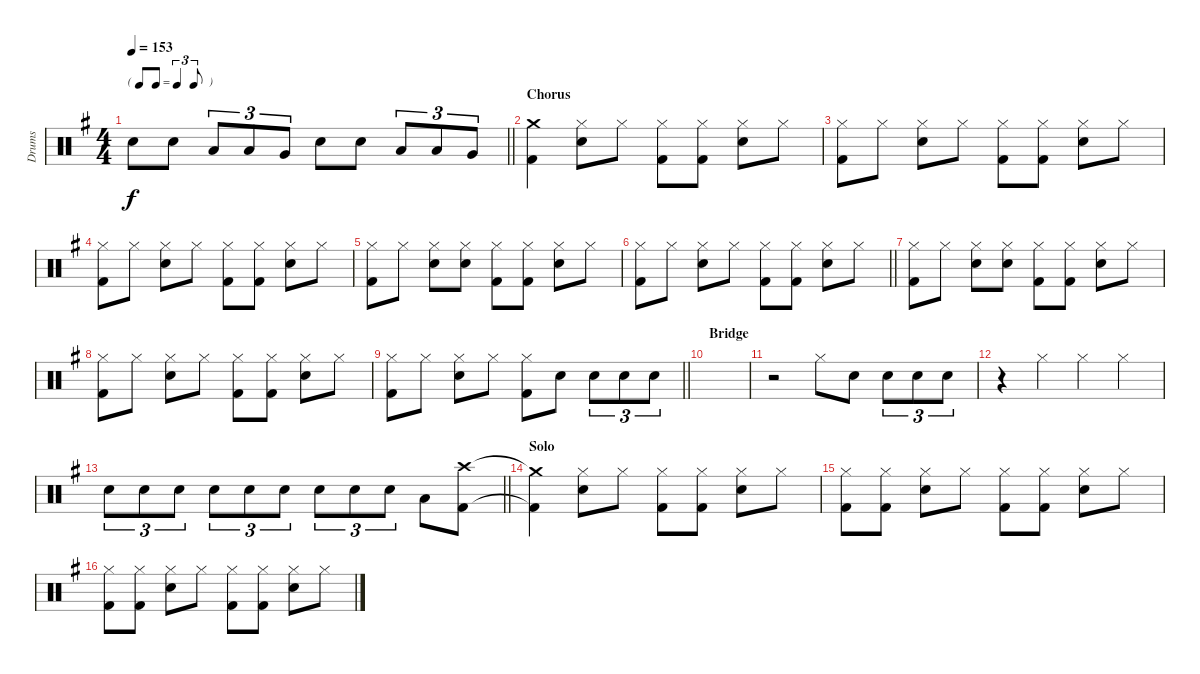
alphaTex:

\track ("Drums" "Drums") {instrument percussion}
\staff {score}
\articulation defaults
\ts (4 4)
\tf triplet8th
\tempo 153
\clef neutral
\barLineRight lightlight
\ks g "Electric Snare (hit)".8{dy f} "Electric Snare (hit)".8 "Low Tom (hit)".8{tu (3 2)} "Low Tom (hit)".8{tu (3 2)} "Very Low Tom (hit)".8{tu (3 2)} "Electric Snare (hit)".8 "Electric Snare (hit)".8 "Low Tom (hit)".8{tu (3 2)} "Low Tom (hit)".8{tu (3 2)} "Very Low Tom (hit)".8{tu (3 2)}
|
\section ("" "Chorus")
("Crash medium (hit)" "Kick (hit) 2").4 ("Hi-Hat (closed)" "Electric Snare (hit)").8 "Hi-Hat (closed)".8 ("Hi-Hat (closed)" "Kick (hit) 2").8 ("Hi-Hat (closed)" "Kick (hit) 2").8 ("Hi-Hat (closed)" "Electric Snare (hit)").8 "Hi-Hat (closed)".8 |
("Hi-Hat (closed)" "Kick (hit) 2").8 "Hi-Hat (closed)".8 ("Hi-Hat (closed)" "Electric Snare (hit)").8 "Hi-Hat (closed)".8 ("Hi-Hat (closed)" "Kick (hit) 2").8 ("Hi-Hat (closed)" "Kick (hit) 2").8 ("Hi-Hat (closed)" "Electric Snare (hit)").8 "Hi-Hat (closed)".8 |
("Hi-Hat (closed)" "Kick (hit) 2").8 "Hi-Hat (closed)".8 ("Hi-Hat (closed)" "Electric Snare (hit)").8 "Hi-Hat (closed)".8 ("Hi-Hat (closed)" "Kick (hit) 2").8 ("Hi-Hat (closed)" "Kick (hit) 2").8 ("Hi-Hat (closed)" "Electric Snare (hit)").8 "Hi-Hat (closed)".8 |
("Hi-Hat (closed)" "Kick (hit) 2").8 "Hi-Hat (closed)".8 ("Hi-Hat (closed)" "Electric Snare (hit)").8 ("Hi-Hat (closed)" "Electric Snare (hit)").8 ("Hi-Hat (closed)" "Kick (hit) 2").8 ("Hi-Hat (closed)" "Kick (hit) 2").8 ("Hi-Hat (closed)" "Electric Snare (hit)").8 "Hi-Hat (closed)".8 |
\barLineRight lightlight
("Hi-Hat (closed)" "Kick (hit) 2").8 "Hi-Hat (closed)".8 ("Hi-Hat (closed)" "Electric Snare (hit)").8 "Hi-Hat (closed)".8 ("Hi-Hat (closed)" "Kick (hit) 2").8 ("Hi-Hat (closed)" "Kick (hit) 2").8 ("Hi-Hat (closed)" "Electric Snare (hit)").8 "Hi-Hat (closed)".8 |
("Hi-Hat (closed)" "Kick (hit) 2").8 "Hi-Hat (closed)".8 ("Hi-Hat (closed)" "Electric Snare (hit)").8 ("Hi-Hat (closed)" "Electric Snare (hit)").8 ("Hi-Hat (closed)" "Kick (hit) 2").8 ("Hi-Hat (closed)" "Kick (hit) 2").8 ("Hi-Hat (closed)" "Electric Snare (hit)").8 "Hi-Hat (closed)".8 |
("Hi-Hat (closed)" "Kick (hit) 2").8 "Hi-Hat (closed)".8 ("Hi-Hat (closed)" "Electric Snare (hit)").8 "Hi-Hat (closed)".8 ("Hi-Hat (closed)" "Kick (hit) 2").8 ("Hi-Hat (closed)" "Kick (hit) 2").8 ("Hi-Hat (closed)" "Electric Snare (hit)").8 "Hi-Hat (closed)".8 |
\barLineRight lightlight
("Hi-Hat (closed)" "Kick (hit) 2").8 "Hi-Hat (closed)".8 ("Hi-Hat (closed)" "Electric Snare (hit)").8 "Hi-Hat (closed)".8 ("Hi-Hat (closed)" "Kick (hit) 2").8 "Electric Snare (hit)".8 "Electric Snare (hit)".8{tu (3 2)} "Electric Snare (hit)".8{tu (3 2)} "Electric Snare (hit)".8{tu (3 2)} |
\section ("" "Bridge")
|
r.2 "Hi-Hat (closed)".8 "Electric Snare (hit)".8 "Electric Snare (hit)".8{tu (3 2)} "Electric Snare (hit)".8{tu (3 2)} "Electric Snare (hit)".8{tu (3 2)} |
r.4 "Hi-Hat (closed)".4 "Hi-Hat (closed)".4 "Hi-Hat (closed)".4 |
\barLineRight lightlight "Electric Snare (hit)".8{tu (3 2)} "Electric Snare (hit)".8{tu (3 2)} "Electric Snare (hit)".8{tu (3 2)} "Electric Snare (hit)".8{tu (3 2)} "Electric Snare (hit)".8{tu (3 2)} "Electric Snare (hit)".8{tu (3 2)} "Electric Snare (hit)".8{tu (3 2)} "Electric Snare (hit)".8{tu (3 2)} "Electric Snare (hit)".8{tu (3 2)} "Low Tom (hit)".8
("Crash high (hit)" "Kick (hit) 2").8 |
\section ("" "Solo")
("Crash medium (hit)"{t} "Kick (hit) 2"{t}).4 ("Hi-Hat (closed)" "Electric Snare (hit)").8 "Hi-Hat (closed)".8 ("Hi-Hat (closed)" "Kick (hit) 2").8 ("Hi-Hat (closed)" "Kick (hit) 2").8 ("Hi-Hat (closed)" "Electric Snare (hit)").8 "Hi-Hat (closed)".8 |
("Hi-Hat (closed)" "Kick (hit) 2").8 ("Hi-Hat (closed)" "Kick (hit) 2").8 ("Hi-Hat (closed)" "Electric Snare (hit)").8 "Hi-Hat (closed)".8 ("Hi-Hat (closed)" "Kick (hit) 2").8 ("Hi-Hat (closed)" "Kick (hit) 2").8 ("Hi-Hat (closed)" "Electric Snare (hit)").8 "Hi-Hat (closed)".8 |
("Hi-Hat (closed)" "Kick (hit) 2").8 ("Hi-Hat (closed)" "Kick (hit) 2").8 ("Hi-Hat (closed)" "Electric Snare (hit)").8 "Hi-Hat (closed)".8 ("Hi-Hat (closed)" "Kick (hit) 2").8 ("Hi-Hat (closed)" "Kick (hit) 2").8 ("Hi-Hat (closed)" "Electric Snare (hit)").8 "Hi-Hat (closed)".8
